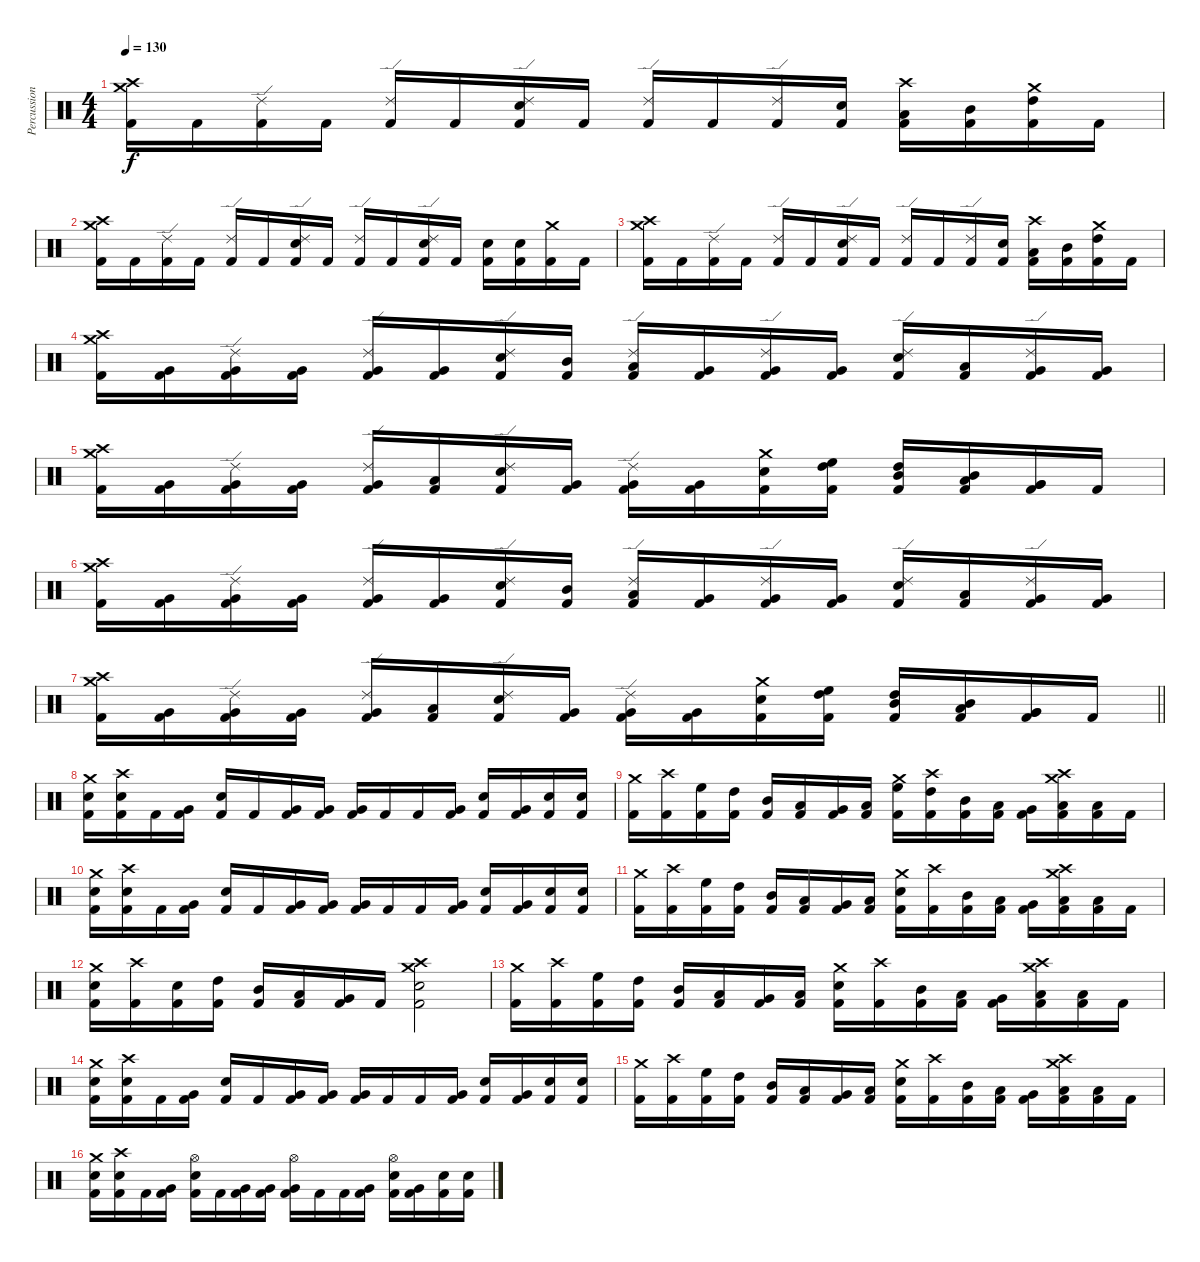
\track ("Percussion" "Percussion") {instrument percussion}
\staff {score}
\articulation defaults
\ts (4 4)
\tempo 130
\clef neutral
\ks c
("Crash medium (hit)" "Crash high (hit)" "Kick (hit) 2").16{dy f} "Kick (hit) 2".16 ("Ride (edge) 2" "Kick (hit) 2").16 "Kick (hit) 2".16 ("Ride (edge) 2" "Kick (hit) 2").16 "Kick (hit) 2".16 ("Ride (edge) 2" "Electric Snare (hit)" "Kick (hit) 2").16 "Kick (hit) 2".16 ("Ride (edge) 2" "Kick (hit) 2").16 "Kick (hit) 2".16 ("Ride (edge) 2" "Kick (hit) 2").16 ("Electric Snare (hit)" "Kick (hit) 2").16 ("Crash high (hit)" "Low Tom (hit)" "Kick (hit) 2").16 ("Mid Tom (hit)" "Kick (hit) 2").16 ("Crash medium (hit)" "High Tom (hit)" "Kick (hit) 2").16 "Kick (hit) 2".16 |
("Crash medium (hit)" "Crash high (hit)" "Kick (hit) 2").16 "Kick (hit) 2".16 ("Ride (edge) 2" "Kick (hit) 2").16 "Kick (hit) 2".16 ("Ride (edge) 2" "Kick (hit) 2").16 "Kick (hit) 2".16 ("Ride (edge) 2" "Electric Snare (hit)" "Kick (hit) 2").16 "Kick (hit) 2".16 ("Ride (edge) 2" "Kick (hit) 2").16 "Kick (hit) 2".16 ("Ride (edge) 2" "Electric Snare (hit)" "Kick (hit) 2").16 "Kick (hit) 2".16 ("Electric Snare (hit)" "Kick (hit) 2").16 ("Electric Snare (hit)" "Kick (hit) 2").16 ("Crash medium (hit)" "Kick (hit) 2").16 "Kick (hit) 2".16 |
("Crash medium (hit)" "Crash high (hit)" "Kick (hit) 2").16 "Kick (hit) 2".16 ("Ride (edge) 2" "Kick (hit) 2").16 "Kick (hit) 2".16 ("Ride (edge) 2" "Kick (hit) 2").16 "Kick (hit) 2".16 ("Ride (edge) 2" "Electric Snare (hit)" "Kick (hit) 2").16 "Kick (hit) 2".16 ("Ride (edge) 2" "Kick (hit) 2").16 "Kick (hit) 2".16 ("Ride (edge) 2" "Kick (hit) 2").16 ("Electric Snare (hit)" "Kick (hit) 2").16 ("Crash high (hit)" "Low Tom (hit)" "Kick (hit) 2").16 ("Mid Tom (hit)" "Kick (hit) 2").16 ("Crash medium (hit)" "High Tom (hit)" "Kick (hit) 2").16 "Kick (hit) 2".16 |
("Crash medium (hit)" "Crash high (hit)" "Kick (hit) 2").16 ("Very Low Tom (hit)" "Kick (hit) 2").16 ("Ride (edge) 2" "Very Low Tom (hit)" "Kick (hit) 2").16 ("Very Low Tom (hit)" "Kick (hit) 2").16 ("Ride (edge) 2" "Very Low Tom (hit)" "Kick (hit) 2").16 ("Very Low Tom (hit)" "Kick (hit) 2").16 ("Ride (edge) 2" "Electric Snare (hit)" "Kick (hit) 2").16 ("Mid Tom (hit)" "Kick (hit) 2").16 ("Ride (edge) 2" "Low Tom (hit)" "Kick (hit) 2").16 ("Very Low Tom (hit)" "Kick (hit) 2").16 ("Ride (edge) 2" "Very Low Tom (hit)" "Kick (hit) 2").16 ("Very Low Tom (hit)" "Kick (hit) 2").16 ("Ride (edge) 2" "Electric Snare (hit)" "Kick (hit) 2").16 ("Low Tom (hit)" "Kick (hit) 2").16 ("Ride (edge) 2" "Very Low Tom (hit)" "Kick (hit) 2").16 ("Very Low Tom (hit)" "Kick (hit) 2").16 |
("Crash medium (hit)" "Crash high (hit)" "Kick (hit) 2").16 ("Very Low Tom (hit)" "Kick (hit) 2").16 ("Ride (edge) 2" "Very Low Tom (hit)" "Kick (hit) 2").16 ("Very Low Tom (hit)" "Kick (hit) 2").16 ("Ride (edge) 2" "Very Low Tom (hit)" "Kick (hit) 2").16 ("Low Tom (hit)" "Kick (hit) 2").16 ("Ride (edge) 2" "Electric Snare (hit)" "Kick (hit) 2").16 ("Very Low Tom (hit)" "Kick (hit) 2").16 ("Ride (edge) 2" "Very Low Tom (hit)" "Kick (hit) 2").16 ("Very Low Tom (hit)" "Kick (hit) 2").16 ("Crash medium (hit)" "Electric Snare (hit)" "Kick (hit) 2").16 ("High Tom (hit)" "High Floor Tom (hit)" "Kick (hit) 2").16 ("Mid Tom (hit)" "High Tom (hit)" "Kick (hit) 2").16 ("Low Tom (hit)" "Mid Tom (hit)" "Kick (hit) 2").16 ("Very Low Tom (hit)" "Very Low Tom (hit)" "Kick (hit) 2").16 "Kick (hit) 2".16 |
("Crash medium (hit)" "Crash high (hit)" "Kick (hit) 2").16 ("Very Low Tom (hit)" "Kick (hit) 2").16 ("Ride (edge) 2" "Very Low Tom (hit)" "Kick (hit) 2").16 ("Very Low Tom (hit)" "Kick (hit) 2").16 ("Ride (edge) 2" "Very Low Tom (hit)" "Kick (hit) 2").16 ("Very Low Tom (hit)" "Kick (hit) 2").16 ("Ride (edge) 2" "Electric Snare (hit)" "Kick (hit) 2").16 ("Mid Tom (hit)" "Kick (hit) 2").16 ("Ride (edge) 2" "Low Tom (hit)" "Kick (hit) 2").16 ("Very Low Tom (hit)" "Kick (hit) 2").16 ("Ride (edge) 2" "Very Low Tom (hit)" "Kick (hit) 2").16 ("Very Low Tom (hit)" "Kick (hit) 2").16 ("Ride (edge) 2" "Electric Snare (hit)" "Kick (hit) 2").16 ("Low Tom (hit)" "Kick (hit) 2").16 ("Ride (edge) 2" "Very Low Tom (hit)" "Kick (hit) 2").16 ("Very Low Tom (hit)" "Kick (hit) 2").16 |
\barLineRight lightlight
("Crash medium (hit)" "Crash high (hit)" "Kick (hit) 2").16 ("Very Low Tom (hit)" "Kick (hit) 2").16 ("Ride (edge) 2" "Very Low Tom (hit)" "Kick (hit) 2").16 ("Very Low Tom (hit)" "Kick (hit) 2").16 ("Ride (edge) 2" "Very Low Tom (hit)" "Kick (hit) 2").16 ("Low Tom (hit)" "Kick (hit) 2").16 ("Ride (edge) 2" "Electric Snare (hit)" "Kick (hit) 2").16 ("Very Low Tom (hit)" "Kick (hit) 2").16 ("Ride (edge) 2" "Very Low Tom (hit)" "Kick (hit) 2").16 ("Very Low Tom (hit)" "Kick (hit) 2").16 ("Crash medium (hit)" "Electric Snare (hit)" "Kick (hit) 2").16 ("High Tom (hit)" "High Floor Tom (hit)" "Kick (hit) 2").16 ("Mid Tom (hit)" "High Tom (hit)" "Kick (hit) 2").16 ("Low Tom (hit)" "Mid Tom (hit)" "Kick (hit) 2").16 ("Very Low Tom (hit)" "Very Low Tom (hit)" "Kick (hit) 2").16 "Kick (hit) 2".16 |
\section ("" "")
("Crash medium (hit)" "Electric Snare (hit)" "Kick (hit) 2").16 ("Crash high (hit)" "Electric Snare (hit)" "Kick (hit) 2").16 "Kick (hit) 2".16 ("Very Low Tom (hit)" "Kick (hit) 2").16 ("Electric Snare (hit)" "Kick (hit) 2").16 "Kick (hit) 2".16 ("Very Low Tom (hit)" "Kick (hit) 2").16 ("Very Low Tom (hit)" "Kick (hit) 2").16 ("Very Low Tom (hit)" "Kick (hit) 2").16 "Kick (hit) 2".16 "Kick (hit) 2".16 ("Very Low Tom (hit)" "Kick (hit) 2").16 ("Electric Snare (hit)" "Kick (hit) 2").16 ("Very Low Tom (hit)" "Kick (hit) 2").16 ("Electric Snare (hit)" "Kick (hit) 2").16 ("Electric Snare (hit)" "Kick (hit) 2").16 |
("Crash medium (hit)" "Kick (hit) 2").16 ("Crash high (hit)" "Kick (hit) 2").16 ("High Floor Tom (hit)" "Kick (hit) 2").16 ("High Tom (hit)" "Kick (hit) 2").16 ("Mid Tom (hit)" "Kick (hit) 2").16 ("Low Tom (hit)" "Kick (hit) 2").16 ("Very Low Tom (hit)" "Kick (hit) 2").16 ("Low Floor Tom (hit)" "Kick (hit) 2").16 ("Crash medium (hit)" "High Floor Tom (hit)" "Kick (hit) 2").16 ("Crash high (hit)" "High Tom (hit)" "Kick (hit) 2").16 ("Mid Tom (hit)" "Kick (hit) 2").16 ("Low Tom (hit)" "Kick (hit) 2").16 ("Very Low Tom (hit)" "Kick (hit) 2").16 ("Crash medium (hit)" "Crash high (hit)" "Low Floor Tom (hit)" "Kick (hit) 2").16 ("Low Floor Tom (hit)" "Kick (hit) 2").16 "Kick (hit) 2".16 |
("Crash medium (hit)" "Electric Snare (hit)" "Kick (hit) 2").16 ("Crash high (hit)" "Electric Snare (hit)" "Kick (hit) 2").16 "Kick (hit) 2".16 ("Very Low Tom (hit)" "Kick (hit) 2").16 ("Electric Snare (hit)" "Kick (hit) 2").16 "Kick (hit) 2".16 ("Very Low Tom (hit)" "Kick (hit) 2").16 ("Very Low Tom (hit)" "Kick (hit) 2").16 ("Very Low Tom (hit)" "Kick (hit) 2").16 "Kick (hit) 2".16 "Kick (hit) 2".16 ("Very Low Tom (hit)" "Kick (hit) 2").16 ("Electric Snare (hit)" "Kick (hit) 2").16 ("Very Low Tom (hit)" "Kick (hit) 2").16 ("Electric Snare (hit)" "Kick (hit) 2").16 ("Electric Snare (hit)" "Kick (hit) 2").16 |
("Crash medium (hit)" "Kick (hit) 2").16 ("Crash high (hit)" "Kick (hit) 2").16 ("High Floor Tom (hit)" "Kick (hit) 2").16 ("High Tom (hit)" "Kick (hit) 2").16 ("Mid Tom (hit)" "Kick (hit) 2").16 ("Low Tom (hit)" "Kick (hit) 2").16 ("Very Low Tom (hit)" "Kick (hit) 2").16 ("Low Floor Tom (hit)" "Kick (hit) 2").16 ("Crash medium (hit)" "Electric Snare (hit)" "Kick (hit) 2").16 ("Crash high (hit)" "Kick (hit) 2").16 ("Mid Tom (hit)" "Kick (hit) 2").16 ("Low Tom (hit)" "Kick (hit) 2").16 ("Very Low Tom (hit)" "Kick (hit) 2").16 ("Crash medium (hit)" "Crash high (hit)" "Low Floor Tom (hit)" "Kick (hit) 2").16 ("Low Floor Tom (hit)" "Kick (hit) 2").16 "Kick (hit) 2".16 |
("Crash medium (hit)" "Electric Snare (hit)" "Kick (hit) 2").16 ("Crash high (hit)" "Kick (hit) 2").16 ("Electric Snare (hit)" "Kick (hit) 2").16 ("High Tom (hit)" "Kick (hit) 2").16 ("Mid Tom (hit)" "Kick (hit) 2").16 ("Low Tom (hit)" "Kick (hit) 2").16 ("Very Low Tom (hit)" "Kick (hit) 2").16 "Kick (hit) 2".16 ("Crash high (hit)" "Crash medium (hit)" "Electric Snare (hit)" "Kick (hit) 2").2 |
("Crash medium (hit)" "Kick (hit) 2").16 ("Crash high (hit)" "Kick (hit) 2").16 ("High Floor Tom (hit)" "Kick (hit) 2").16 ("High Tom (hit)" "Kick (hit) 2").16 ("Mid Tom (hit)" "Kick (hit) 2").16 ("Low Tom (hit)" "Kick (hit) 2").16 ("Very Low Tom (hit)" "Kick (hit) 2").16 ("Low Floor Tom (hit)" "Kick (hit) 2").16 ("Crash medium (hit)" "Electric Snare (hit)" "Kick (hit) 2").16 ("Crash high (hit)" "Kick (hit) 2").16 ("Mid Tom (hit)" "Kick (hit) 2").16 ("Low Tom (hit)" "Kick (hit) 2").16 ("Very Low Tom (hit)" "Kick (hit) 2").16 ("Crash medium (hit)" "Crash high (hit)" "Low Floor Tom (hit)" "Kick (hit) 2").16 ("Low Floor Tom (hit)" "Kick (hit) 2").16 "Kick (hit) 2".16 |
("Crash medium (hit)" "Electric Snare (hit)" "Kick (hit) 2").16 ("Crash high (hit)" "Electric Snare (hit)" "Kick (hit) 2").16 "Kick (hit) 2".16 ("Very Low Tom (hit)" "Kick (hit) 2").16 ("Electric Snare (hit)" "Kick (hit) 2").16 "Kick (hit) 2".16 ("Very Low Tom (hit)" "Kick (hit) 2").16 ("Very Low Tom (hit)" "Kick (hit) 2").16 ("Very Low Tom (hit)" "Kick (hit) 2").16 "Kick (hit) 2".16 "Kick (hit) 2".16 ("Very Low Tom (hit)" "Kick (hit) 2").16 ("Electric Snare (hit)" "Kick (hit) 2").16 ("Very Low Tom (hit)" "Kick (hit) 2").16 ("Electric Snare (hit)" "Kick (hit) 2").16 ("Electric Snare (hit)" "Kick (hit) 2").16 |
("Crash medium (hit)" "Kick (hit) 2").16 ("Crash high (hit)" "Kick (hit) 2").16 ("High Floor Tom (hit)" "Kick (hit) 2").16 ("High Tom (hit)" "Kick (hit) 2").16 ("Mid Tom (hit)" "Kick (hit) 2").16 ("Low Tom (hit)" "Kick (hit) 2").16 ("Very Low Tom (hit)" "Kick (hit) 2").16 ("Low Floor Tom (hit)" "Kick (hit) 2").16 ("Crash medium (hit)" "Electric Snare (hit)" "Kick (hit) 2").16 ("Crash high (hit)" "Kick (hit) 2").16 ("Mid Tom (hit)" "Kick (hit) 2").16 ("Low Tom (hit)" "Kick (hit) 2").16 ("Very Low Tom (hit)" "Kick (hit) 2").16 ("Crash medium (hit)" "Crash high (hit)" "Low Floor Tom (hit)" "Kick (hit) 2").16 ("Low Floor Tom (hit)" "Kick (hit) 2").16 "Kick (hit) 2".16 |
("Crash medium (hit)" "Electric Snare (hit)" "Kick (hit) 2").16 ("Crash high (hit)" "Electric Snare (hit)" "Kick (hit) 2").16 "Kick (hit) 2".16 ("Very Low Tom (hit)" "Kick (hit) 2").16 ("Hi-Hat (open)" "Electric Snare (hit)" "Kick (hit) 2").16 "Kick (hit) 2".16 ("Very Low Tom (hit)" "Kick (hit) 2").16 ("Very Low Tom (hit)" "Kick (hit) 2").16 ("Hi-Hat (open)" "Very Low Tom (hit)" "Kick (hit) 2").16 "Kick (hit) 2".16 "Kick (hit) 2".16 ("Very Low Tom (hit)" "Kick (hit) 2").16 ("Hi-Hat (open)" "Electric Snare (hit)" "Kick (hit) 2").16 ("Very Low Tom (hit)" "Kick (hit) 2").16 ("Electric Snare (hit)" "Kick (hit) 2").16 ("Electric Snare (hit)" "Kick (hit) 2").16
